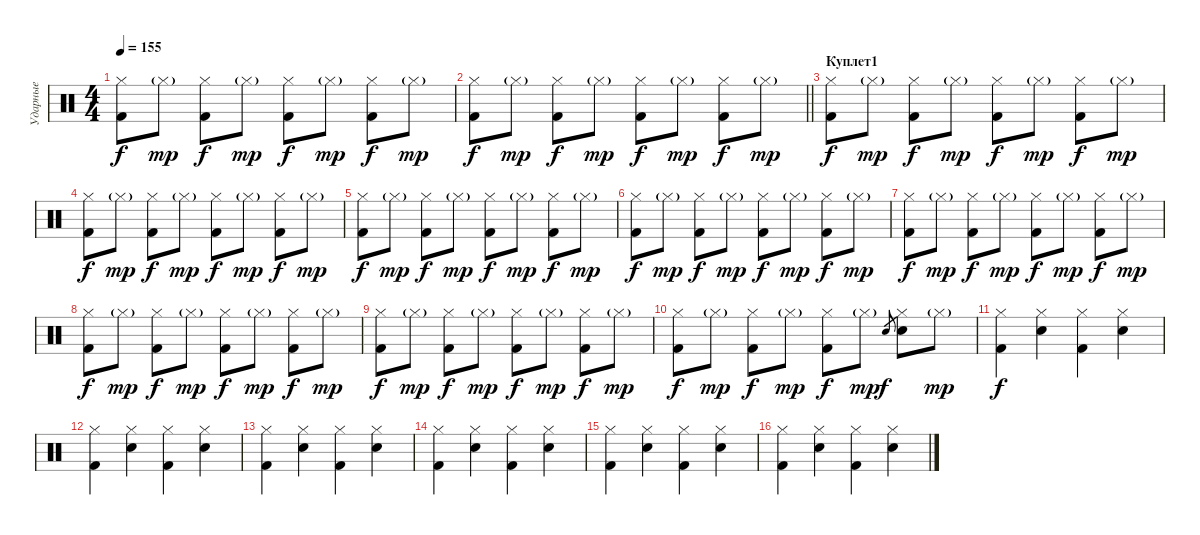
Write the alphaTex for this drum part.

\track ("Ударные" "Ударные") {solo instrument percussion}
\staff {score}
\articulation defaults
\ts (4 4)
\tempo 155
\clef neutral
\ks c
("Hi-Hat (closed)" "Kick (hit) 2").8{dy f} "Hi-Hat (closed)"{g}.8{dy mp} ("Hi-Hat (closed)" "Kick (hit) 2").8{dy f} "Hi-Hat (closed)"{g}.8{dy mp} ("Hi-Hat (closed)" "Kick (hit) 2").8{dy f} "Hi-Hat (closed)"{g}.8{dy mp} ("Hi-Hat (closed)" "Kick (hit) 2").8{dy f} "Hi-Hat (closed)"{g}.8{dy mp} |
\barLineRight lightlight
("Hi-Hat (closed)" "Kick (hit) 2").8{dy f} "Hi-Hat (closed)"{g}.8{dy mp} ("Hi-Hat (closed)" "Kick (hit) 2").8{dy f} "Hi-Hat (closed)"{g}.8{dy mp} ("Hi-Hat (closed)" "Kick (hit) 2").8{dy f} "Hi-Hat (closed)"{g}.8{dy mp} ("Hi-Hat (closed)" "Kick (hit) 2").8{dy f} "Hi-Hat (closed)"{g}.8{dy mp} |
\section ("" "Куплет1")
("Hi-Hat (closed)" "Kick (hit) 2").8{dy f} "Hi-Hat (closed)"{g}.8{dy mp} ("Hi-Hat (closed)" "Kick (hit) 2").8{dy f} "Hi-Hat (closed)"{g}.8{dy mp} ("Hi-Hat (closed)" "Kick (hit) 2").8{dy f} "Hi-Hat (closed)"{g}.8{dy mp} ("Hi-Hat (closed)" "Kick (hit) 2").8{dy f} "Hi-Hat (closed)"{g}.8{dy mp} |
("Hi-Hat (closed)" "Kick (hit) 2").8{dy f} "Hi-Hat (closed)"{g}.8{dy mp} ("Hi-Hat (closed)" "Kick (hit) 2").8{dy f} "Hi-Hat (closed)"{g}.8{dy mp} ("Hi-Hat (closed)" "Kick (hit) 2").8{dy f} "Hi-Hat (closed)"{g}.8{dy mp} ("Hi-Hat (closed)" "Kick (hit) 2").8{dy f} "Hi-Hat (closed)"{g}.8{dy mp} |
("Hi-Hat (closed)" "Kick (hit) 2").8{dy f} "Hi-Hat (closed)"{g}.8{dy mp} ("Hi-Hat (closed)" "Kick (hit) 2").8{dy f} "Hi-Hat (closed)"{g}.8{dy mp} ("Hi-Hat (closed)" "Kick (hit) 2").8{dy f} "Hi-Hat (closed)"{g}.8{dy mp} ("Hi-Hat (closed)" "Kick (hit) 2").8{dy f} "Hi-Hat (closed)"{g}.8{dy mp} |
("Hi-Hat (closed)" "Kick (hit) 2").8{dy f} "Hi-Hat (closed)"{g}.8{dy mp} ("Hi-Hat (closed)" "Kick (hit) 2").8{dy f} "Hi-Hat (closed)"{g}.8{dy mp} ("Hi-Hat (closed)" "Kick (hit) 2").8{dy f} "Hi-Hat (closed)"{g}.8{dy mp} ("Hi-Hat (closed)" "Kick (hit) 2").8{dy f} "Hi-Hat (closed)"{g}.8{dy mp} |
("Hi-Hat (closed)" "Kick (hit) 2").8{dy f} "Hi-Hat (closed)"{g}.8{dy mp} ("Hi-Hat (closed)" "Kick (hit) 2").8{dy f} "Hi-Hat (closed)"{g}.8{dy mp} ("Hi-Hat (closed)" "Kick (hit) 2").8{dy f} "Hi-Hat (closed)"{g}.8{dy mp} ("Hi-Hat (closed)" "Kick (hit) 2").8{dy f} "Hi-Hat (closed)"{g}.8{dy mp} |
("Hi-Hat (closed)" "Kick (hit) 2").8{dy f} "Hi-Hat (closed)"{g}.8{dy mp} ("Hi-Hat (closed)" "Kick (hit) 2").8{dy f} "Hi-Hat (closed)"{g}.8{dy mp} ("Hi-Hat (closed)" "Kick (hit) 2").8{dy f} "Hi-Hat (closed)"{g}.8{dy mp} ("Hi-Hat (closed)" "Kick (hit) 2").8{dy f} "Hi-Hat (closed)"{g}.8{dy mp} |
("Hi-Hat (closed)" "Kick (hit) 2").8{dy f} "Hi-Hat (closed)"{g}.8{dy mp} ("Hi-Hat (closed)" "Kick (hit) 2").8{dy f} "Hi-Hat (closed)"{g}.8{dy mp} ("Hi-Hat (closed)" "Kick (hit) 2").8{dy f} "Hi-Hat (closed)"{g}.8{dy mp} ("Hi-Hat (closed)" "Kick (hit) 2").8{dy f} "Hi-Hat (closed)"{g}.8{dy mp} |
("Hi-Hat (closed)" "Kick (hit) 2").8{dy f} "Hi-Hat (closed)"{g}.8{dy mp} ("Hi-Hat (closed)" "Kick (hit) 2").8{dy f} "Hi-Hat (closed)"{g}.8{dy mp} ("Hi-Hat (closed)" "Kick (hit) 2").8{dy f} "Hi-Hat (closed)"{g}.8{dy mp} "Electric Snare (hit)".8{gr dy f} ("Hi-Hat (closed)" "Electric Snare (hit)").8 "Hi-Hat (closed)"{g}.8{dy mp} |
("Hi-Hat (closed)" "Kick (hit) 2").4{dy f} ("Hi-Hat (closed)" "Electric Snare (hit)").4 ("Hi-Hat (closed)" "Kick (hit) 2").4 ("Hi-Hat (closed)" "Electric Snare (hit)").4 |
("Hi-Hat (closed)" "Kick (hit) 2").4 ("Hi-Hat (closed)" "Electric Snare (hit)").4 ("Hi-Hat (closed)" "Kick (hit) 2").4 ("Hi-Hat (closed)" "Electric Snare (hit)").4 |
("Hi-Hat (closed)" "Kick (hit) 2").4 ("Hi-Hat (closed)" "Electric Snare (hit)").4 ("Hi-Hat (closed)" "Kick (hit) 2").4 ("Hi-Hat (closed)" "Electric Snare (hit)").4 |
("Hi-Hat (closed)" "Kick (hit) 2").4 ("Hi-Hat (closed)" "Electric Snare (hit)").4 ("Hi-Hat (closed)" "Kick (hit) 2").4 ("Hi-Hat (closed)" "Electric Snare (hit)").4 |
("Hi-Hat (closed)" "Kick (hit) 2").4 ("Hi-Hat (closed)" "Electric Snare (hit)").4 ("Hi-Hat (closed)" "Kick (hit) 2").4 ("Hi-Hat (closed)" "Electric Snare (hit)").4 |
("Hi-Hat (closed)" "Kick (hit) 2").4 ("Hi-Hat (closed)" "Electric Snare (hit)").4 ("Hi-Hat (closed)" "Kick (hit) 2").4 ("Hi-Hat (closed)" "Electric Snare (hit)").4
